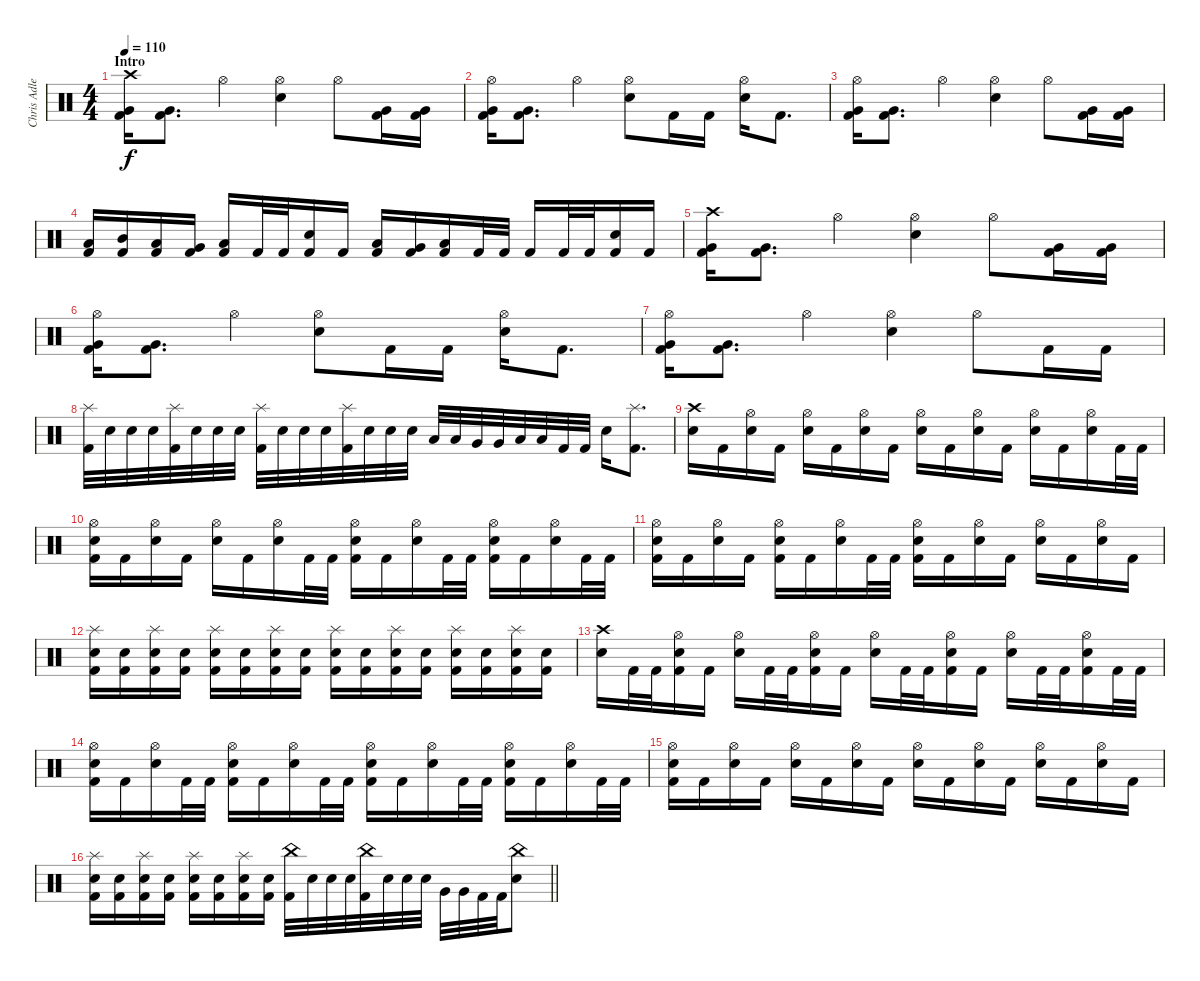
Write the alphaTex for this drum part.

\track ("Chris Adler" "Chris Adle") {instrument percussion}
\staff {score}
\articulation defaults
\ts (4 4)
\section ("" "Intro")
\tempo 110
\clef neutral
\ks c
("Crash high (hit)" "Very Low Tom (hit)" "Kick (hit) 2").16{dy f} ("Very Low Tom (hit)" "Kick (hit) 2").8{d} "Hi-Hat (open)".4 ("Hi-Hat (open)" "Electric Snare (hit)").4 "Hi-Hat (open)".8 ("Very Low Tom (hit)" "Kick (hit) 2").16 ("Very Low Tom (hit)" "Kick (hit) 2").16 |
("Hi-Hat (open)" "Very Low Tom (hit)" "Kick (hit) 2").16 ("Very Low Tom (hit)" "Kick (hit) 2").8{d} "Hi-Hat (open)".4 ("Hi-Hat (open)" "Electric Snare (hit)").8 "Kick (hit) 2".16 "Kick (hit) 2".16 ("Hi-Hat (open)" "Electric Snare (hit)").16 "Kick (hit) 2".8{d} |
("Hi-Hat (open)" "Very Low Tom (hit)" "Kick (hit) 2").16 ("Very Low Tom (hit)" "Kick (hit) 2").8{d} "Hi-Hat (open)".4 ("Hi-Hat (open)" "Electric Snare (hit)").4 "Hi-Hat (open)".8 ("Very Low Tom (hit)" "Kick (hit) 2").16 ("Very Low Tom (hit)" "Kick (hit) 2").16 |
("Low Tom (hit)" "Kick (hit) 2").16 ("Mid Tom (hit)" "Kick (hit) 2").16 ("Low Tom (hit)" "Kick (hit) 2").16 ("Very Low Tom (hit)" "Kick (hit) 2").16 ("Low Floor Tom (hit)" "Kick (hit) 2").16 "Kick (hit) 2".32 "Kick (hit) 2".32 ("Electric Snare (hit)" "Kick (hit) 2").16 "Kick (hit) 2".16 ("Low Tom (hit)" "Kick (hit) 2").16 ("Very Low Tom (hit)" "Kick (hit) 2").16 ("Low Floor Tom (hit)" "Kick (hit) 2").16 "Kick (hit) 2".32 "Kick (hit) 2".32 "Kick (hit) 2".16 "Kick (hit) 2".32 "Kick (hit) 2".32 ("Electric Snare (hit)" "Kick (hit) 2").16 "Kick (hit) 2".16 |
("Crash high (hit)" "Very Low Tom (hit)" "Kick (hit) 2").16 ("Very Low Tom (hit)" "Kick (hit) 2").8{d} "Hi-Hat (open)".4 ("Hi-Hat (open)" "Electric Snare (hit)").4 "Hi-Hat (open)".8 ("Very Low Tom (hit)" "Kick (hit) 2").16 ("Very Low Tom (hit)" "Kick (hit) 2").16 |
("Hi-Hat (open)" "Very Low Tom (hit)" "Kick (hit) 2").16 ("Very Low Tom (hit)" "Kick (hit) 2").8{d} "Hi-Hat (open)".4 ("Hi-Hat (open)" "Electric Snare (hit)").8 "Kick (hit) 2".16 "Kick (hit) 2".16 ("Hi-Hat (open)" "Electric Snare (hit)").16 "Kick (hit) 2".8{d} |
("Hi-Hat (open)" "Very Low Tom (hit)" "Kick (hit) 2").16 ("Very Low Tom (hit)" "Kick (hit) 2").8{d} "Hi-Hat (open)".4 ("Hi-Hat (open)" "Electric Snare (hit)").4 "Hi-Hat (open)".8 "Kick (hit) 2".16 "Kick (hit) 2".16 |
("Splash (hit)" "Kick (hit) 2").32 "Electric Snare (hit)".32 "Electric Snare (hit)".32 "Electric Snare (hit)".32 ("Splash (hit)" "Kick (hit) 2").32 "Electric Snare (hit)".32 "Electric Snare (hit)".32 "Electric Snare (hit)".32 ("Splash (hit)" "Kick (hit) 2").32 "Electric Snare (hit)".32 "Electric Snare (hit)".32 "Electric Snare (hit)".32 ("Splash (hit)" "Kick (hit) 2").32 "Electric Snare (hit)".32 "Electric Snare (hit)".32 "Electric Snare (hit)".32 "Low Tom (hit)".32 "Low Tom (hit)".32 "Very Low Tom (hit)".32 "Very Low Tom (hit)".32 "Low Floor Tom (hit)".32 "Low Floor Tom (hit)".32 "Kick (hit) 2".32 "Kick (hit) 2".32 "Electric Snare (hit)".16 ("Splash (hit)" "Kick (hit) 2").8{d} |
("Crash high (hit)" "Electric Snare (hit)").16 "Kick (hit) 2".16 ("Hi-Hat (open)" "Electric Snare (hit)").16 "Kick (hit) 2".16 ("Hi-Hat (open)" "Electric Snare (hit)").16 "Kick (hit) 2".16 ("Hi-Hat (open)" "Electric Snare (hit)").16 "Kick (hit) 2".16 ("Hi-Hat (open)" "Electric Snare (hit)").16 "Kick (hit) 2".16 ("Hi-Hat (open)" "Electric Snare (hit)").16 "Kick (hit) 2".16 ("Hi-Hat (open)" "Electric Snare (hit)").16 "Kick (hit) 2".16 ("Hi-Hat (open)" "Electric Snare (hit)").16 "Kick (hit) 2".32 "Kick (hit) 2".32 |
("Hi-Hat (open)" "Electric Snare (hit)" "Kick (hit) 2").16 "Kick (hit) 2".16 ("Hi-Hat (open)" "Electric Snare (hit)").16 "Kick (hit) 2".16 ("Hi-Hat (open)" "Electric Snare (hit)").16 "Kick (hit) 2".16 ("Hi-Hat (open)" "Electric Snare (hit)").16 "Kick (hit) 2".32 "Kick (hit) 2".32 ("Hi-Hat (open)" "Electric Snare (hit)" "Kick (hit) 2").16 "Kick (hit) 2".16 ("Hi-Hat (open)" "Electric Snare (hit)").16 "Kick (hit) 2".32 "Kick (hit) 2".32 ("Hi-Hat (open)" "Electric Snare (hit)" "Kick (hit) 2").16 "Kick (hit) 2".16 ("Hi-Hat (open)" "Electric Snare (hit)").16 "Kick (hit) 2".32 "Kick (hit) 2".32 |
("Hi-Hat (open)" "Electric Snare (hit)" "Kick (hit) 2").16 "Kick (hit) 2".16 ("Hi-Hat (open)" "Electric Snare (hit)").16 "Kick (hit) 2".16 ("Hi-Hat (open)" "Electric Snare (hit)" "Kick (hit) 2").16 "Kick (hit) 2".16 ("Hi-Hat (open)" "Electric Snare (hit)").16 "Kick (hit) 2".32 "Kick (hit) 2".32 ("Hi-Hat (open)" "Electric Snare (hit)" "Kick (hit) 2").16 "Kick (hit) 2".16 ("Hi-Hat (open)" "Electric Snare (hit)").16 "Kick (hit) 2".16 ("Hi-Hat (open)" "Electric Snare (hit)").16 "Kick (hit) 2".16 ("Hi-Hat (open)" "Electric Snare (hit)").16 "Kick (hit) 2".16 |
("Splash (hit)" "Electric Snare (hit)" "Kick (hit) 2").16 ("Electric Snare (hit)" "Kick (hit) 2").16 ("Splash (hit)" "Electric Snare (hit)" "Kick (hit) 2").16 ("Electric Snare (hit)" "Kick (hit) 2").16 ("Splash (hit)" "Electric Snare (hit)" "Kick (hit) 2").16 ("Electric Snare (hit)" "Kick (hit) 2").16 ("Splash (hit)" "Electric Snare (hit)" "Kick (hit) 2").16 ("Electric Snare (hit)" "Kick (hit) 2").16 ("Splash (hit)" "Electric Snare (hit)" "Kick (hit) 2").16 ("Electric Snare (hit)" "Kick (hit) 2").16 ("Splash (hit)" "Electric Snare (hit)" "Kick (hit) 2").16 ("Electric Snare (hit)" "Kick (hit) 2").16 ("Splash (hit)" "Electric Snare (hit)" "Kick (hit) 2").16 ("Electric Snare (hit)" "Kick (hit) 2").16 ("Splash (hit)" "Electric Snare (hit)" "Kick (hit) 2").16 ("Electric Snare (hit)" "Kick (hit) 2").16 |
("Crash high (hit)" "Electric Snare (hit)").16 "Kick (hit) 2".32 "Kick (hit) 2".32 ("Hi-Hat (open)" "Electric Snare (hit)" "Kick (hit) 2").16 "Kick (hit) 2".16 ("Hi-Hat (open)" "Electric Snare (hit)").16 "Kick (hit) 2".32 "Kick (hit) 2".32 ("Hi-Hat (open)" "Electric Snare (hit)" "Kick (hit) 2").16 "Kick (hit) 2".16 ("Hi-Hat (open)" "Electric Snare (hit)").16 "Kick (hit) 2".32 "Kick (hit) 2".32 ("Hi-Hat (open)" "Electric Snare (hit)" "Kick (hit) 2").16 "Kick (hit) 2".16 ("Hi-Hat (open)" "Electric Snare (hit)").16 "Kick (hit) 2".32 "Kick (hit) 2".32 ("Hi-Hat (open)" "Electric Snare (hit)" "Kick (hit) 2").16 "Kick (hit) 2".32 "Kick (hit) 2".32 |
("Hi-Hat (open)" "Electric Snare (hit)" "Kick (hit) 2").16 "Kick (hit) 2".16 ("Hi-Hat (open)" "Electric Snare (hit)").16 "Kick (hit) 2".32 "Kick (hit) 2".32 ("Hi-Hat (open)" "Electric Snare (hit)" "Kick (hit) 2").16 "Kick (hit) 2".16 ("Hi-Hat (open)" "Electric Snare (hit)").16 "Kick (hit) 2".32 "Kick (hit) 2".32 ("Hi-Hat (open)" "Electric Snare (hit)" "Kick (hit) 2").16 "Kick (hit) 2".16 ("Hi-Hat (open)" "Electric Snare (hit)").16 "Kick (hit) 2".32 "Kick (hit) 2".32 ("Hi-Hat (open)" "Electric Snare (hit)" "Kick (hit) 2").16 "Kick (hit) 2".16 ("Hi-Hat (open)" "Electric Snare (hit)").16 "Kick (hit) 2".32 "Kick (hit) 2".32 |
("Hi-Hat (open)" "Electric Snare (hit)" "Kick (hit) 2").16 "Kick (hit) 2".16 ("Hi-Hat (open)" "Electric Snare (hit)").16 "Kick (hit) 2".16 ("Hi-Hat (open)" "Electric Snare (hit)").16 "Kick (hit) 2".16 ("Hi-Hat (open)" "Electric Snare (hit)").16 "Kick (hit) 2".16 ("Hi-Hat (open)" "Electric Snare (hit)").16 "Kick (hit) 2".16 ("Hi-Hat (open)" "Electric Snare (hit)").16 "Kick (hit) 2".16 ("Hi-Hat (open)" "Electric Snare (hit)").16 "Kick (hit) 2".16 ("Hi-Hat (open)" "Electric Snare (hit)").16 "Kick (hit) 2".16 |
\barLineRight lightlight
("Splash (hit)" "Electric Snare (hit)" "Kick (hit) 2").16 ("Electric Snare (hit)" "Kick (hit) 2").16 ("Splash (hit)" "Electric Snare (hit)" "Kick (hit) 2").16 ("Electric Snare (hit)" "Kick (hit) 2").16 ("Splash (hit)" "Electric Snare (hit)" "Kick (hit) 2").16 ("Electric Snare (hit)" "Kick (hit) 2").16 ("Splash (hit)" "Electric Snare (hit)" "Kick (hit) 2").16 ("Electric Snare (hit)" "Kick (hit) 2").16 ("China (hit)" "Kick (hit) 2").32 "Electric Snare (hit)".32 "Electric Snare (hit)".32 "Electric Snare (hit)".32 ("China (hit)" "Kick (hit) 2").32 "Electric Snare (hit)".32 "Electric Snare (hit)".32 "Electric Snare (hit)".32 "Very Low Tom (hit)".32 "Very Low Tom (hit)".32 "Kick (hit) 2".32 "Kick (hit) 2".32 ("China (hit)" "Electric Snare (hit)").8
